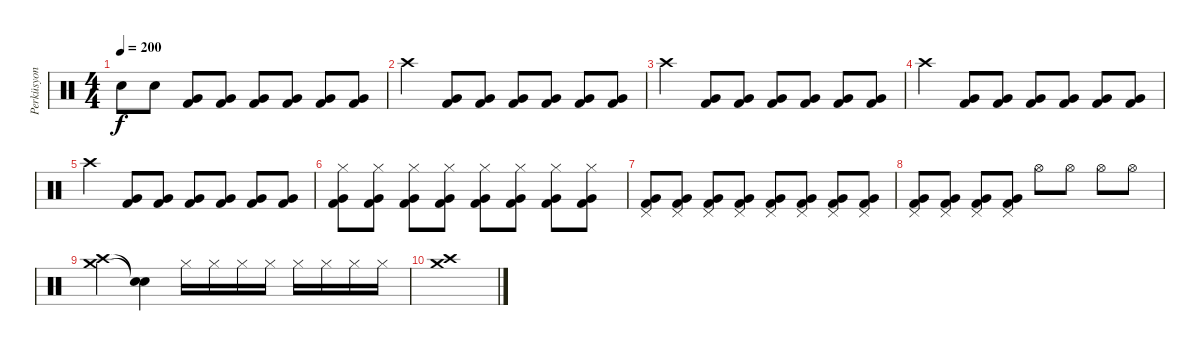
\track ("Perküsyon" "Perküsyon") {instrument percussion}
\staff {score}
\articulation defaults
\ts (4 4)
\tempo 200
\clef neutral
\ks c "Snare (hit) 2".8{dy f} "Electric Snare (hit)".8
("Very Low Tom (hit)" "Kick (hit) 2").8 ("Very Low Tom (hit)" "Kick (hit) 2").8 ("Very Low Tom (hit)" "Kick (hit) 2").8 ("Very Low Tom (hit)" "Kick (hit) 2").8 ("Very Low Tom (hit)" "Kick (hit) 2").8 ("Very Low Tom (hit)" "Kick (hit) 2").8 |
"Crash high (hit)".4 ("Very Low Tom (hit)" "Kick (hit) 2").8 ("Very Low Tom (hit)" "Kick (hit) 2").8 ("Very Low Tom (hit)" "Kick (hit) 2").8 ("Very Low Tom (hit)" "Kick (hit) 2").8 ("Very Low Tom (hit)" "Kick (hit) 2").8 ("Very Low Tom (hit)" "Kick (hit) 2").8 |
"Crash high (hit)".4 ("Very Low Tom (hit)" "Kick (hit) 2").8 ("Very Low Tom (hit)" "Kick (hit) 2").8 ("Very Low Tom (hit)" "Kick (hit) 2").8 ("Very Low Tom (hit)" "Kick (hit) 2").8 ("Very Low Tom (hit)" "Kick (hit) 2").8 ("Very Low Tom (hit)" "Kick (hit) 2").8 |
"Crash high (hit)".4 ("Very Low Tom (hit)" "Kick (hit) 2").8 ("Very Low Tom (hit)" "Kick (hit) 2").8 ("Very Low Tom (hit)" "Kick (hit) 2").8 ("Very Low Tom (hit)" "Kick (hit) 2").8 ("Very Low Tom (hit)" "Kick (hit) 2").8 ("Very Low Tom (hit)" "Kick (hit) 2").8 |
"Crash high (hit)".4 ("Very Low Tom (hit)" "Kick (hit) 2").8 ("Kick (hit) 2" "Very Low Tom (hit)").8 ("Kick (hit) 2" "Very Low Tom (hit)").8 ("Kick (hit) 2" "Very Low Tom (hit)").8 ("Kick (hit) 2" "Very Low Tom (hit)").8 ("Kick (hit) 2" "Very Low Tom (hit)").8 |
("Hi-Hat (closed)" "Kick (hit) 2" "Very Low Tom (hit)").8 ("Hi-Hat (closed)" "Kick (hit) 2" "Very Low Tom (hit)").8 ("Hi-Hat (closed)" "Kick (hit) 2" "Very Low Tom (hit)").8 ("Hi-Hat (closed)" "Kick (hit) 2" "Very Low Tom (hit)").8 ("Hi-Hat (closed)" "Kick (hit) 2" "Very Low Tom (hit)").8 ("Hi-Hat (closed)" "Kick (hit) 2" "Very Low Tom (hit)").8 ("Hi-Hat (closed)" "Kick (hit) 2" "Very Low Tom (hit)").8 ("Hi-Hat (closed)" "Kick (hit) 2" "Very Low Tom (hit)").8 |
("Pedal Hi-Hat (hit)" "Kick (hit) 2" "Very Low Tom (hit)").8 ("Pedal Hi-Hat (hit)" "Kick (hit) 2" "Very Low Tom (hit)").8 ("Pedal Hi-Hat (hit)" "Kick (hit) 2" "Very Low Tom (hit)").8 ("Pedal Hi-Hat (hit)" "Kick (hit) 2" "Very Low Tom (hit)").8 ("Pedal Hi-Hat (hit)" "Kick (hit) 2" "Very Low Tom (hit)").8 ("Pedal Hi-Hat (hit)" "Kick (hit) 2" "Very Low Tom (hit)").8 ("Pedal Hi-Hat (hit)" "Kick (hit) 2" "Very Low Tom (hit)").8 ("Pedal Hi-Hat (hit)" "Kick (hit) 2" "Very Low Tom (hit)").8 |
("Pedal Hi-Hat (hit)" "Kick (hit) 2" "Very Low Tom (hit)").8 ("Pedal Hi-Hat (hit)" "Kick (hit) 2" "Very Low Tom (hit)").8 ("Pedal Hi-Hat (hit)" "Kick (hit) 2" "Very Low Tom (hit)").8 ("Pedal Hi-Hat (hit)" "Kick (hit) 2" "Very Low Tom (hit)").8 "Hi-Hat (open)".8 "Hi-Hat (open)".8 "Hi-Hat (open)".8 "Hi-Hat (open)".8 |
("Crash high (hit)" "Crash medium (hit)").4 ("Snare (hit)"{t} "Snare (hit)"{t}).4 "Hi-Hat (closed)".16 "Hi-Hat (closed)".16 "Hi-Hat (closed)".16 "Hi-Hat (closed)".16 "Hi-Hat (closed)".16 "Hi-Hat (closed)".16 "Hi-Hat (closed)".16 "Hi-Hat (closed)".16 |
("Crash high (hit)" "Crash medium (hit)").1
